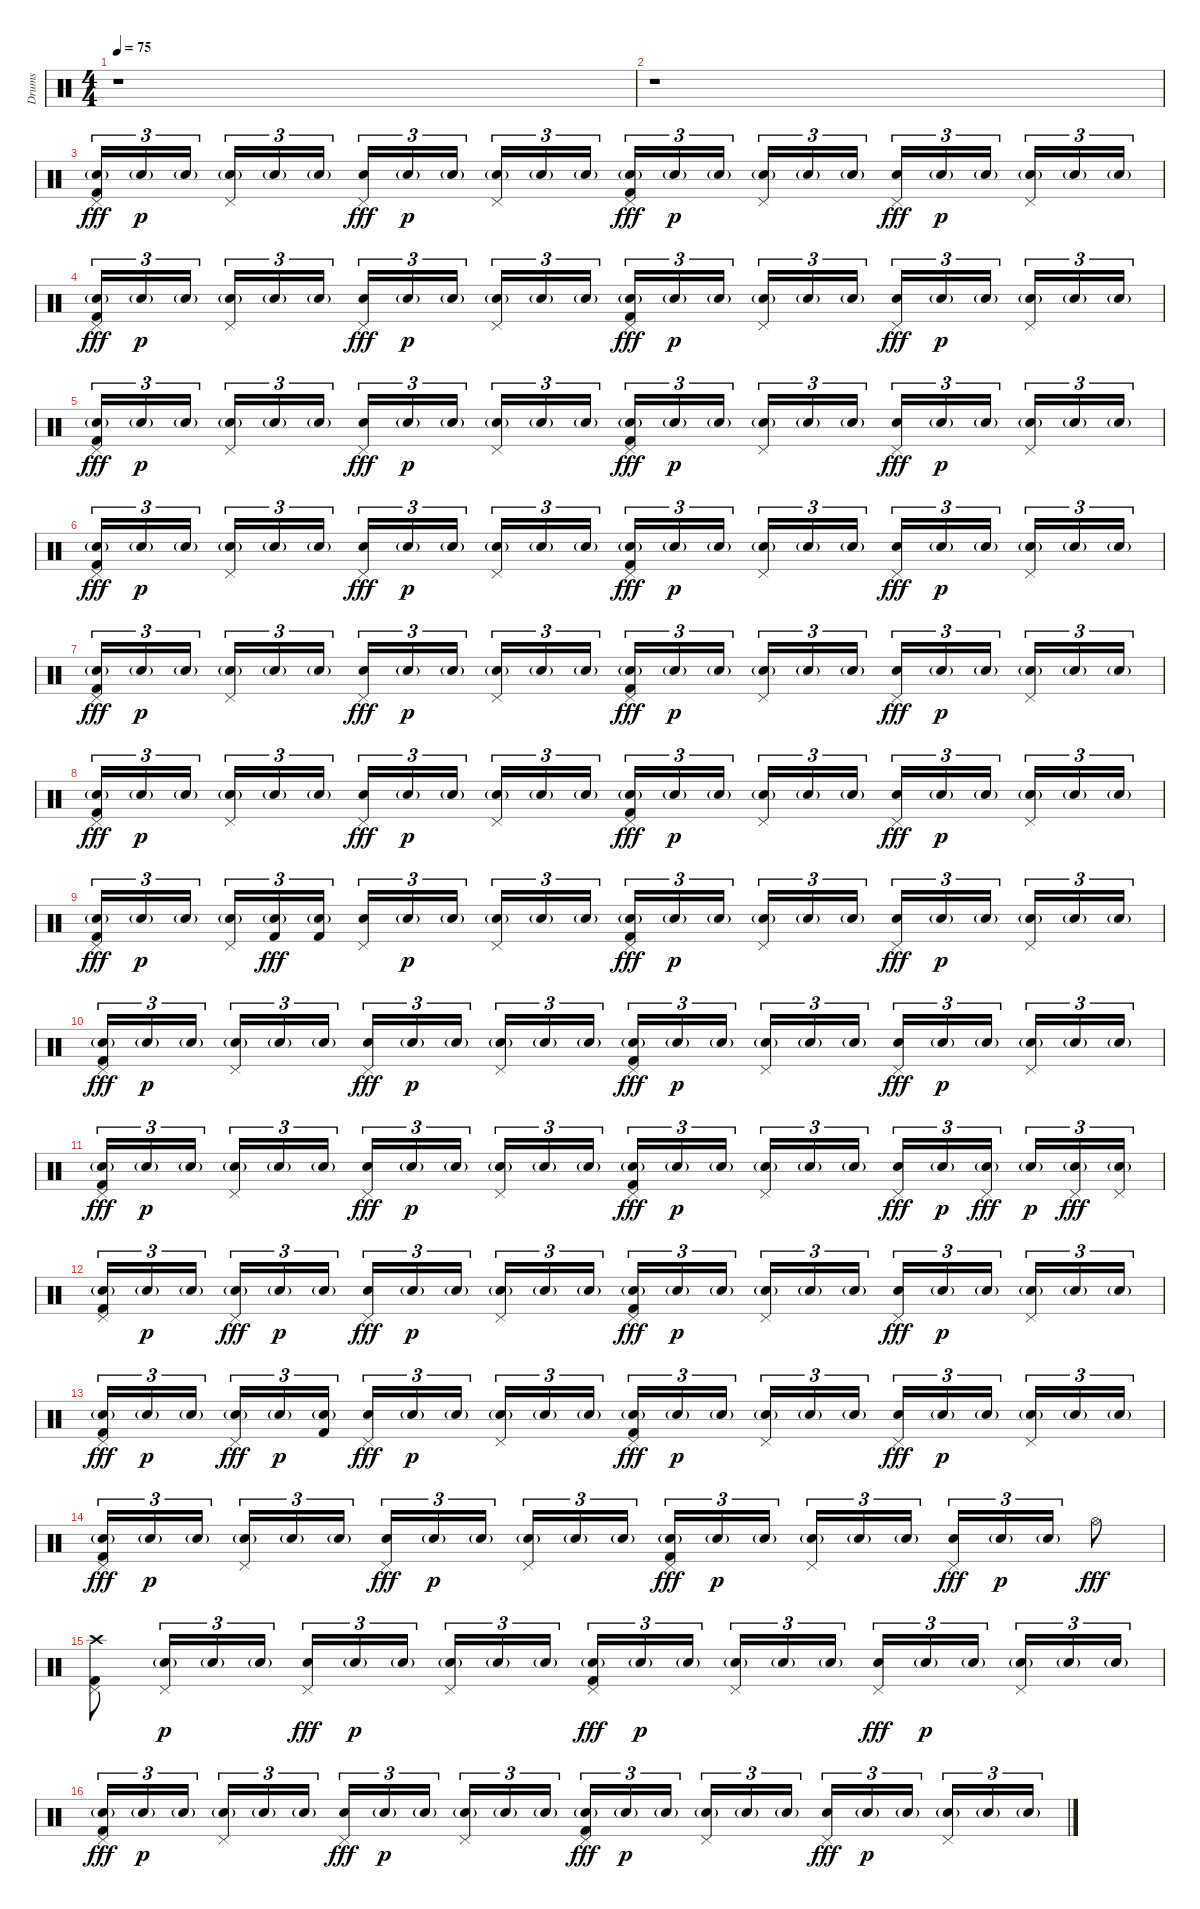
\track ("Drums" "Drums") {instrument percussion}
\staff {score}
\articulation defaults
\ts (4 4)
\tempo 75
\clef neutral
\ks c
r.1{dy fff} |
r.1 |
("Snare (hit) 2"{g} "Kick (hit) 2" "Pedal Hi-Hat (hit)").16{tu (3 2)} "Snare (hit) 2"{g}.16{tu (3 2) dy p} "Snare (hit) 2"{g}.16{tu (3 2)} ("Snare (hit) 2"{g} "Pedal Hi-Hat (hit)").16{tu (3 2)} "Snare (hit) 2"{g}.16{tu (3 2)} "Snare (hit) 2"{g}.16{tu (3 2)} ("Electric Snare (hit)" "Pedal Hi-Hat (hit)").16{tu (3 2) dy fff} "Snare (hit) 2"{g}.16{tu (3 2) dy p} "Snare (hit) 2"{g}.16{tu (3 2)} ("Snare (hit) 2"{g} "Pedal Hi-Hat (hit)").16{tu (3 2)} "Snare (hit) 2"{g}.16{tu (3 2)} "Snare (hit) 2"{g}.16{tu (3 2)} ("Snare (hit) 2"{g} "Kick (hit) 2" "Pedal Hi-Hat (hit)").16{tu (3 2) dy fff} "Snare (hit) 2"{g}.16{tu (3 2) dy p} "Snare (hit) 2"{g}.16{tu (3 2)} ("Snare (hit) 2"{g} "Pedal Hi-Hat (hit)").16{tu (3 2)} "Snare (hit) 2"{g}.16{tu (3 2)} "Snare (hit) 2"{g}.16{tu (3 2)} ("Electric Snare (hit)" "Pedal Hi-Hat (hit)").16{tu (3 2) dy fff} "Snare (hit) 2"{g}.16{tu (3 2) dy p} "Snare (hit) 2"{g}.16{tu (3 2)} ("Snare (hit) 2"{g} "Pedal Hi-Hat (hit)").16{tu (3 2)} "Snare (hit) 2"{g}.16{tu (3 2)} "Snare (hit) 2"{g}.16{tu (3 2)} |
("Snare (hit) 2"{g} "Kick (hit) 2" "Pedal Hi-Hat (hit)").16{tu (3 2) dy fff} "Snare (hit) 2"{g}.16{tu (3 2) dy p} "Snare (hit) 2"{g}.16{tu (3 2)} ("Snare (hit) 2"{g} "Pedal Hi-Hat (hit)").16{tu (3 2)} "Snare (hit) 2"{g}.16{tu (3 2)} "Snare (hit) 2"{g}.16{tu (3 2)} ("Electric Snare (hit)" "Pedal Hi-Hat (hit)").16{tu (3 2) dy fff} "Snare (hit) 2"{g}.16{tu (3 2) dy p} "Snare (hit) 2"{g}.16{tu (3 2)} ("Snare (hit) 2"{g} "Pedal Hi-Hat (hit)").16{tu (3 2)} "Snare (hit) 2"{g}.16{tu (3 2)} "Snare (hit) 2"{g}.16{tu (3 2)} ("Snare (hit) 2"{g} "Kick (hit) 2" "Pedal Hi-Hat (hit)").16{tu (3 2) dy fff} "Snare (hit) 2"{g}.16{tu (3 2) dy p} "Snare (hit) 2"{g}.16{tu (3 2)} ("Snare (hit) 2"{g} "Pedal Hi-Hat (hit)").16{tu (3 2)} "Snare (hit) 2"{g}.16{tu (3 2)} "Snare (hit) 2"{g}.16{tu (3 2)} ("Electric Snare (hit)" "Pedal Hi-Hat (hit)").16{tu (3 2) dy fff} "Snare (hit) 2"{g}.16{tu (3 2) dy p} "Snare (hit) 2"{g}.16{tu (3 2)} ("Snare (hit) 2"{g} "Pedal Hi-Hat (hit)").16{tu (3 2)} "Snare (hit) 2"{g}.16{tu (3 2)} "Snare (hit) 2"{g}.16{tu (3 2)} |
("Snare (hit) 2"{g} "Kick (hit) 2" "Pedal Hi-Hat (hit)").16{tu (3 2) dy fff} "Snare (hit) 2"{g}.16{tu (3 2) dy p} "Snare (hit) 2"{g}.16{tu (3 2)} ("Snare (hit) 2"{g} "Pedal Hi-Hat (hit)").16{tu (3 2)} "Snare (hit) 2"{g}.16{tu (3 2)} "Snare (hit) 2"{g}.16{tu (3 2)} ("Electric Snare (hit)" "Pedal Hi-Hat (hit)").16{tu (3 2) dy fff} "Snare (hit) 2"{g}.16{tu (3 2) dy p} "Snare (hit) 2"{g}.16{tu (3 2)} ("Snare (hit) 2"{g} "Pedal Hi-Hat (hit)").16{tu (3 2)} "Snare (hit) 2"{g}.16{tu (3 2)} "Snare (hit) 2"{g}.16{tu (3 2)} ("Snare (hit) 2"{g} "Kick (hit) 2" "Pedal Hi-Hat (hit)").16{tu (3 2) dy fff} "Snare (hit) 2"{g}.16{tu (3 2) dy p} "Snare (hit) 2"{g}.16{tu (3 2)} ("Snare (hit) 2"{g} "Pedal Hi-Hat (hit)").16{tu (3 2)} "Snare (hit) 2"{g}.16{tu (3 2)} "Snare (hit) 2"{g}.16{tu (3 2)} ("Electric Snare (hit)" "Pedal Hi-Hat (hit)").16{tu (3 2) dy fff} "Snare (hit) 2"{g}.16{tu (3 2) dy p} "Snare (hit) 2"{g}.16{tu (3 2)} ("Snare (hit) 2"{g} "Pedal Hi-Hat (hit)").16{tu (3 2)} "Snare (hit) 2"{g}.16{tu (3 2)} "Snare (hit) 2"{g}.16{tu (3 2)} |
("Snare (hit) 2"{g} "Kick (hit) 2" "Pedal Hi-Hat (hit)").16{tu (3 2) dy fff} "Snare (hit) 2"{g}.16{tu (3 2) dy p} "Snare (hit) 2"{g}.16{tu (3 2)} ("Snare (hit) 2"{g} "Pedal Hi-Hat (hit)").16{tu (3 2)} "Snare (hit) 2"{g}.16{tu (3 2)} "Snare (hit) 2"{g}.16{tu (3 2)} ("Electric Snare (hit)" "Pedal Hi-Hat (hit)").16{tu (3 2) dy fff} "Snare (hit) 2"{g}.16{tu (3 2) dy p} "Snare (hit) 2"{g}.16{tu (3 2)} ("Snare (hit) 2"{g} "Pedal Hi-Hat (hit)").16{tu (3 2)} "Snare (hit) 2"{g}.16{tu (3 2)} "Snare (hit) 2"{g}.16{tu (3 2)} ("Snare (hit) 2"{g} "Kick (hit) 2" "Pedal Hi-Hat (hit)").16{tu (3 2) dy fff} "Snare (hit) 2"{g}.16{tu (3 2) dy p} "Snare (hit) 2"{g}.16{tu (3 2)} ("Snare (hit) 2"{g} "Pedal Hi-Hat (hit)").16{tu (3 2)} "Snare (hit) 2"{g}.16{tu (3 2)} "Snare (hit) 2"{g}.16{tu (3 2)} ("Electric Snare (hit)" "Pedal Hi-Hat (hit)").16{tu (3 2) dy fff} "Snare (hit) 2"{g}.16{tu (3 2) dy p} "Snare (hit) 2"{g}.16{tu (3 2)} ("Snare (hit) 2"{g} "Pedal Hi-Hat (hit)").16{tu (3 2)} "Snare (hit) 2"{g}.16{tu (3 2)} "Snare (hit) 2"{g}.16{tu (3 2)} |
("Snare (hit) 2"{g} "Kick (hit) 2" "Pedal Hi-Hat (hit)").16{tu (3 2) dy fff} "Snare (hit) 2"{g}.16{tu (3 2) dy p} "Snare (hit) 2"{g}.16{tu (3 2)} ("Snare (hit) 2"{g} "Pedal Hi-Hat (hit)").16{tu (3 2)} "Snare (hit) 2"{g}.16{tu (3 2)} "Snare (hit) 2"{g}.16{tu (3 2)} ("Electric Snare (hit)" "Pedal Hi-Hat (hit)").16{tu (3 2) dy fff} "Snare (hit) 2"{g}.16{tu (3 2) dy p} "Snare (hit) 2"{g}.16{tu (3 2)} ("Snare (hit) 2"{g} "Pedal Hi-Hat (hit)").16{tu (3 2)} "Snare (hit) 2"{g}.16{tu (3 2)} "Snare (hit) 2"{g}.16{tu (3 2)} ("Snare (hit) 2"{g} "Kick (hit) 2" "Pedal Hi-Hat (hit)").16{tu (3 2) dy fff} "Snare (hit) 2"{g}.16{tu (3 2) dy p} "Snare (hit) 2"{g}.16{tu (3 2)} ("Snare (hit) 2"{g} "Pedal Hi-Hat (hit)").16{tu (3 2)} "Snare (hit) 2"{g}.16{tu (3 2)} "Snare (hit) 2"{g}.16{tu (3 2)} ("Electric Snare (hit)" "Pedal Hi-Hat (hit)").16{tu (3 2) dy fff} "Snare (hit) 2"{g}.16{tu (3 2) dy p} "Snare (hit) 2"{g}.16{tu (3 2)} ("Snare (hit) 2"{g} "Pedal Hi-Hat (hit)").16{tu (3 2)} "Snare (hit) 2"{g}.16{tu (3 2)} "Snare (hit) 2"{g}.16{tu (3 2)} |
("Snare (hit) 2"{g} "Kick (hit) 2" "Pedal Hi-Hat (hit)").16{tu (3 2) dy fff} "Snare (hit) 2"{g}.16{tu (3 2) dy p} "Snare (hit) 2"{g}.16{tu (3 2)} ("Snare (hit) 2"{g} "Pedal Hi-Hat (hit)").16{tu (3 2)} "Snare (hit) 2"{g}.16{tu (3 2)} "Snare (hit) 2"{g}.16{tu (3 2)} ("Electric Snare (hit)" "Pedal Hi-Hat (hit)").16{tu (3 2) dy fff} "Snare (hit) 2"{g}.16{tu (3 2) dy p} "Snare (hit) 2"{g}.16{tu (3 2)} ("Snare (hit) 2"{g} "Pedal Hi-Hat (hit)").16{tu (3 2)} "Snare (hit) 2"{g}.16{tu (3 2)} "Snare (hit) 2"{g}.16{tu (3 2)} ("Snare (hit) 2"{g} "Kick (hit) 2" "Pedal Hi-Hat (hit)").16{tu (3 2) dy fff} "Snare (hit) 2"{g}.16{tu (3 2) dy p} "Snare (hit) 2"{g}.16{tu (3 2)} ("Snare (hit) 2"{g} "Pedal Hi-Hat (hit)").16{tu (3 2)} "Snare (hit) 2"{g}.16{tu (3 2)} "Snare (hit) 2"{g}.16{tu (3 2)} ("Electric Snare (hit)" "Pedal Hi-Hat (hit)").16{tu (3 2) dy fff} "Snare (hit) 2"{g}.16{tu (3 2) dy p} "Snare (hit) 2"{g}.16{tu (3 2)} ("Snare (hit) 2"{g} "Pedal Hi-Hat (hit)").16{tu (3 2)} "Snare (hit) 2"{g}.16{tu (3 2)} "Snare (hit) 2"{g}.16{tu (3 2)} |
("Snare (hit) 2"{g} "Kick (hit) 2" "Pedal Hi-Hat (hit)").16{tu (3 2) dy fff} "Snare (hit) 2"{g}.16{tu (3 2) dy p} "Snare (hit) 2"{g}.16{tu (3 2)} ("Snare (hit) 2"{g} "Pedal Hi-Hat (hit)").16{tu (3 2)} ("Snare (hit) 2"{g} "Kick (hit) 2").16{tu (3 2) dy fff} ("Snare (hit) 2"{g} "Kick (hit) 2").16{tu (3 2)} ("Electric Snare (hit)" "Pedal Hi-Hat (hit)").16{tu (3 2)} "Snare (hit) 2"{g}.16{tu (3 2) dy p} "Snare (hit) 2"{g}.16{tu (3 2)} ("Snare (hit) 2"{g} "Pedal Hi-Hat (hit)").16{tu (3 2)} "Snare (hit) 2"{g}.16{tu (3 2)} "Snare (hit) 2"{g}.16{tu (3 2)} ("Snare (hit) 2"{g} "Kick (hit) 2" "Pedal Hi-Hat (hit)").16{tu (3 2) dy fff} "Snare (hit) 2"{g}.16{tu (3 2) dy p} "Snare (hit) 2"{g}.16{tu (3 2)} ("Snare (hit) 2"{g} "Pedal Hi-Hat (hit)").16{tu (3 2)} "Snare (hit) 2"{g}.16{tu (3 2)} "Snare (hit) 2"{g}.16{tu (3 2)} ("Electric Snare (hit)" "Pedal Hi-Hat (hit)").16{tu (3 2) dy fff} "Snare (hit) 2"{g}.16{tu (3 2) dy p} "Snare (hit) 2"{g}.16{tu (3 2)} ("Snare (hit) 2"{g} "Pedal Hi-Hat (hit)").16{tu (3 2)} "Snare (hit) 2"{g}.16{tu (3 2)} "Snare (hit) 2"{g}.16{tu (3 2)} |
("Snare (hit) 2"{g} "Kick (hit) 2" "Pedal Hi-Hat (hit)").16{tu (3 2) dy fff} "Snare (hit) 2"{g}.16{tu (3 2) dy p} "Snare (hit) 2"{g}.16{tu (3 2)} ("Snare (hit) 2"{g} "Pedal Hi-Hat (hit)").16{tu (3 2)} "Snare (hit) 2"{g}.16{tu (3 2)} "Snare (hit) 2"{g}.16{tu (3 2)} ("Electric Snare (hit)" "Pedal Hi-Hat (hit)").16{tu (3 2) dy fff} "Snare (hit) 2"{g}.16{tu (3 2) dy p} "Snare (hit) 2"{g}.16{tu (3 2)} ("Snare (hit) 2"{g} "Pedal Hi-Hat (hit)").16{tu (3 2)} "Snare (hit) 2"{g}.16{tu (3 2)} "Snare (hit) 2"{g}.16{tu (3 2)} ("Snare (hit) 2"{g} "Kick (hit) 2" "Pedal Hi-Hat (hit)").16{tu (3 2) dy fff} "Snare (hit) 2"{g}.16{tu (3 2) dy p} "Snare (hit) 2"{g}.16{tu (3 2)} ("Snare (hit) 2"{g} "Pedal Hi-Hat (hit)").16{tu (3 2)} "Snare (hit) 2"{g}.16{tu (3 2)} "Snare (hit) 2"{g}.16{tu (3 2)} ("Electric Snare (hit)" "Pedal Hi-Hat (hit)").16{tu (3 2) dy fff} "Snare (hit) 2"{g}.16{tu (3 2) dy p} "Snare (hit) 2"{g}.16{tu (3 2)} ("Snare (hit) 2"{g} "Pedal Hi-Hat (hit)").16{tu (3 2)} "Snare (hit) 2"{g}.16{tu (3 2)} "Snare (hit) 2"{g}.16{tu (3 2)} |
("Snare (hit) 2"{g} "Kick (hit) 2" "Pedal Hi-Hat (hit)").16{tu (3 2) dy fff} "Snare (hit) 2"{g}.16{tu (3 2) dy p} "Snare (hit) 2"{g}.16{tu (3 2)} ("Snare (hit) 2"{g} "Pedal Hi-Hat (hit)").16{tu (3 2)} "Snare (hit) 2"{g}.16{tu (3 2)} "Snare (hit) 2"{g}.16{tu (3 2)} ("Electric Snare (hit)" "Pedal Hi-Hat (hit)").16{tu (3 2) dy fff} "Snare (hit) 2"{g}.16{tu (3 2) dy p} "Snare (hit) 2"{g}.16{tu (3 2)} ("Snare (hit) 2"{g} "Pedal Hi-Hat (hit)").16{tu (3 2)} "Snare (hit) 2"{g}.16{tu (3 2)} "Snare (hit) 2"{g}.16{tu (3 2)} ("Snare (hit) 2"{g} "Kick (hit) 2" "Pedal Hi-Hat (hit)").16{tu (3 2) dy fff} "Snare (hit) 2"{g}.16{tu (3 2) dy p} "Snare (hit) 2"{g}.16{tu (3 2)} ("Snare (hit) 2"{g} "Pedal Hi-Hat (hit)").16{tu (3 2)} "Snare (hit) 2"{g}.16{tu (3 2)} "Snare (hit) 2"{g}.16{tu (3 2)} ("Electric Snare (hit)" "Pedal Hi-Hat (hit)").16{tu (3 2) dy fff} "Snare (hit) 2"{g}.16{tu (3 2) dy p} ("Snare (hit) 2"{g} "Pedal Hi-Hat (hit)").16{tu (3 2) dy fff} "Snare (hit) 2"{g}.16{tu (3 2) dy p} ("Snare (hit) 2"{g} "Pedal Hi-Hat (hit)").16{tu (3 2) dy fff} ("Snare (hit) 2"{g} "Pedal Hi-Hat (hit)").16{tu (3 2)} |
("Snare (hit) 2"{g} "Kick (hit) 2" "Pedal Hi-Hat (hit)").16{tu (3 2)} "Snare (hit) 2"{g}.16{tu (3 2) dy p} "Snare (hit) 2"{g}.16{tu (3 2)} ("Snare (hit) 2"{g} "Pedal Hi-Hat (hit)").16{tu (3 2) dy fff} "Snare (hit) 2"{g}.16{tu (3 2) dy p} "Snare (hit) 2"{g}.16{tu (3 2)} ("Electric Snare (hit)" "Pedal Hi-Hat (hit)").16{tu (3 2) dy fff} "Snare (hit) 2"{g}.16{tu (3 2) dy p} "Snare (hit) 2"{g}.16{tu (3 2)} ("Snare (hit) 2"{g} "Pedal Hi-Hat (hit)").16{tu (3 2)} "Snare (hit) 2"{g}.16{tu (3 2)} "Snare (hit) 2"{g}.16{tu (3 2)} ("Snare (hit) 2"{g} "Kick (hit) 2" "Pedal Hi-Hat (hit)").16{tu (3 2) dy fff} "Snare (hit) 2"{g}.16{tu (3 2) dy p} "Snare (hit) 2"{g}.16{tu (3 2)} ("Snare (hit) 2"{g} "Pedal Hi-Hat (hit)").16{tu (3 2)} "Snare (hit) 2"{g}.16{tu (3 2)} "Snare (hit) 2"{g}.16{tu (3 2)} ("Electric Snare (hit)" "Pedal Hi-Hat (hit)").16{tu (3 2) dy fff} "Snare (hit) 2"{g}.16{tu (3 2) dy p} "Snare (hit) 2"{g}.16{tu (3 2)} ("Snare (hit) 2"{g} "Pedal Hi-Hat (hit)").16{tu (3 2)} "Snare (hit) 2"{g}.16{tu (3 2)} "Snare (hit) 2"{g}.16{tu (3 2)} |
("Snare (hit) 2"{g} "Kick (hit) 2" "Pedal Hi-Hat (hit)").16{tu (3 2) dy fff} "Snare (hit) 2"{g}.16{tu (3 2) dy p} "Snare (hit) 2"{g}.16{tu (3 2)} ("Snare (hit) 2"{g} "Pedal Hi-Hat (hit)").16{tu (3 2) dy fff} "Snare (hit) 2"{g}.16{tu (3 2) dy p} ("Snare (hit) 2"{g} "Kick (hit) 2").16{tu (3 2)} ("Electric Snare (hit)" "Pedal Hi-Hat (hit)").16{tu (3 2) dy fff} "Snare (hit) 2"{g}.16{tu (3 2) dy p} "Snare (hit) 2"{g}.16{tu (3 2)} ("Snare (hit) 2"{g} "Pedal Hi-Hat (hit)").16{tu (3 2)} "Snare (hit) 2"{g}.16{tu (3 2)} "Snare (hit) 2"{g}.16{tu (3 2)} ("Snare (hit) 2"{g} "Kick (hit) 2" "Pedal Hi-Hat (hit)").16{tu (3 2) dy fff} "Snare (hit) 2"{g}.16{tu (3 2) dy p} "Snare (hit) 2"{g}.16{tu (3 2)} ("Snare (hit) 2"{g} "Pedal Hi-Hat (hit)").16{tu (3 2)} "Snare (hit) 2"{g}.16{tu (3 2)} "Snare (hit) 2"{g}.16{tu (3 2)} ("Electric Snare (hit)" "Pedal Hi-Hat (hit)").16{tu (3 2) dy fff} "Snare (hit) 2"{g}.16{tu (3 2) dy p} "Snare (hit) 2"{g}.16{tu (3 2)} ("Snare (hit) 2"{g} "Pedal Hi-Hat (hit)").16{tu (3 2)} "Snare (hit) 2"{g}.16{tu (3 2)} "Snare (hit) 2"{g}.16{tu (3 2)} |
("Snare (hit) 2"{g} "Kick (hit) 2" "Pedal Hi-Hat (hit)").16{tu (3 2) dy fff} "Snare (hit) 2"{g}.16{tu (3 2) dy p} "Snare (hit) 2"{g}.16{tu (3 2)} ("Snare (hit) 2"{g} "Pedal Hi-Hat (hit)").16{tu (3 2)} "Snare (hit) 2"{g}.16{tu (3 2)} "Snare (hit) 2"{g}.16{tu (3 2)} ("Electric Snare (hit)" "Pedal Hi-Hat (hit)").16{tu (3 2) dy fff} "Snare (hit) 2"{g}.16{tu (3 2) dy p} "Snare (hit) 2"{g}.16{tu (3 2)} ("Snare (hit) 2"{g} "Pedal Hi-Hat (hit)").16{tu (3 2)} "Snare (hit) 2"{g}.16{tu (3 2)} "Snare (hit) 2"{g}.16{tu (3 2)} ("Snare (hit) 2"{g} "Kick (hit) 2" "Pedal Hi-Hat (hit)").16{tu (3 2) dy fff} "Snare (hit) 2"{g}.16{tu (3 2) dy p} "Snare (hit) 2"{g}.16{tu (3 2)} ("Snare (hit) 2"{g} "Pedal Hi-Hat (hit)").16{tu (3 2)} "Snare (hit) 2"{g}.16{tu (3 2)} "Snare (hit) 2"{g}.16{tu (3 2)} ("Electric Snare (hit)" "Pedal Hi-Hat (hit)").16{tu (3 2) dy fff} "Snare (hit) 2"{g}.16{tu (3 2) dy p} "Snare (hit) 2"{g}.16{tu (3 2)} "Hi-Hat (open)".8{dy fff} |
("Crash high (hit)" "Kick (hit) 2" "Pedal Hi-Hat (hit)").8 ("Snare (hit) 2"{g} "Pedal Hi-Hat (hit)").16{tu (3 2) dy p} "Snare (hit) 2"{g}.16{tu (3 2)} "Snare (hit) 2"{g}.16{tu (3 2)} ("Electric Snare (hit)" "Pedal Hi-Hat (hit)").16{tu (3 2) dy fff} "Snare (hit) 2"{g}.16{tu (3 2) dy p} "Snare (hit) 2"{g}.16{tu (3 2)} ("Snare (hit) 2"{g} "Pedal Hi-Hat (hit)").16{tu (3 2)} "Snare (hit) 2"{g}.16{tu (3 2)} "Snare (hit) 2"{g}.16{tu (3 2)} ("Snare (hit) 2"{g} "Kick (hit) 2" "Pedal Hi-Hat (hit)").16{tu (3 2) dy fff} "Snare (hit) 2"{g}.16{tu (3 2) dy p} "Snare (hit) 2"{g}.16{tu (3 2)} ("Snare (hit) 2"{g} "Pedal Hi-Hat (hit)").16{tu (3 2)} "Snare (hit) 2"{g}.16{tu (3 2)} "Snare (hit) 2"{g}.16{tu (3 2)} ("Electric Snare (hit)" "Pedal Hi-Hat (hit)").16{tu (3 2) dy fff} "Snare (hit) 2"{g}.16{tu (3 2) dy p} "Snare (hit) 2"{g}.16{tu (3 2)} ("Snare (hit) 2"{g} "Pedal Hi-Hat (hit)").16{tu (3 2)} "Snare (hit) 2"{g}.16{tu (3 2)} "Snare (hit) 2"{g}.16{tu (3 2)} |
("Snare (hit) 2"{g} "Kick (hit) 2" "Pedal Hi-Hat (hit)").16{tu (3 2) dy fff} "Snare (hit) 2"{g}.16{tu (3 2) dy p} "Snare (hit) 2"{g}.16{tu (3 2)} ("Snare (hit) 2"{g} "Pedal Hi-Hat (hit)").16{tu (3 2)} "Snare (hit) 2"{g}.16{tu (3 2)} "Snare (hit) 2"{g}.16{tu (3 2)} ("Electric Snare (hit)" "Pedal Hi-Hat (hit)").16{tu (3 2) dy fff} "Snare (hit) 2"{g}.16{tu (3 2) dy p} "Snare (hit) 2"{g}.16{tu (3 2)} ("Snare (hit) 2"{g} "Pedal Hi-Hat (hit)").16{tu (3 2)} "Snare (hit) 2"{g}.16{tu (3 2)} "Snare (hit) 2"{g}.16{tu (3 2)} ("Snare (hit) 2"{g} "Kick (hit) 2" "Pedal Hi-Hat (hit)").16{tu (3 2) dy fff} "Snare (hit) 2"{g}.16{tu (3 2) dy p} "Snare (hit) 2"{g}.16{tu (3 2)} ("Snare (hit) 2"{g} "Pedal Hi-Hat (hit)").16{tu (3 2)} "Snare (hit) 2"{g}.16{tu (3 2)} "Snare (hit) 2"{g}.16{tu (3 2)} ("Electric Snare (hit)" "Pedal Hi-Hat (hit)").16{tu (3 2) dy fff} "Snare (hit) 2"{g}.16{tu (3 2) dy p} "Snare (hit) 2"{g}.16{tu (3 2)} ("Snare (hit) 2"{g} "Pedal Hi-Hat (hit)").16{tu (3 2)} "Snare (hit) 2"{g}.16{tu (3 2)} "Snare (hit) 2"{g}.16{tu (3 2)}
